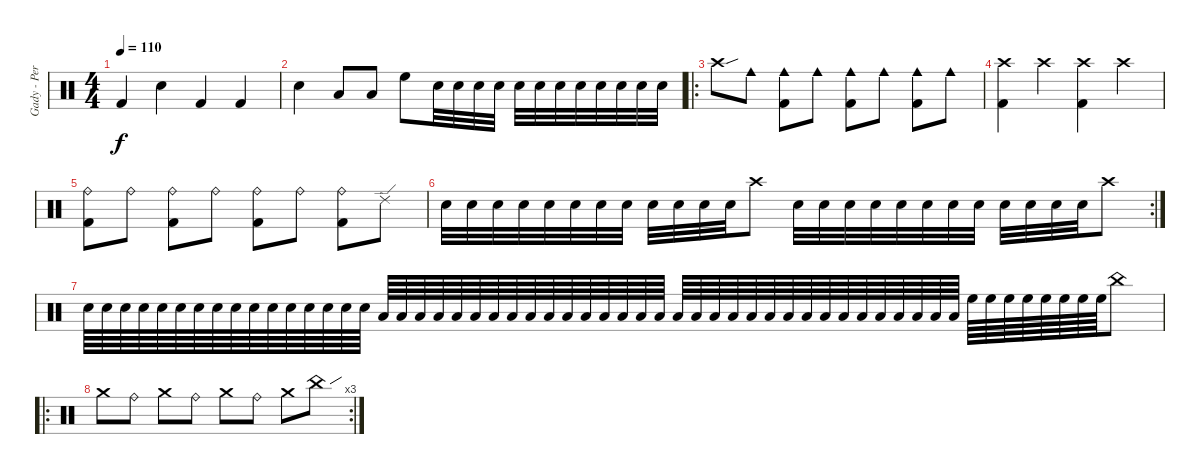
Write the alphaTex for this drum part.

\track ("Gady - Perkusja" "Gady - Per") {instrument percussion}
\staff {score}
\articulation defaults
\ts (4 4)
\tempo 110
\clef neutral
\ks c "Kick (hit) 2".4{dy f} "Electric Snare (hit)".4 "Kick (hit) 2".4 "Kick (hit) 2".4
|
"Electric Snare (hit)".4 "Low Tom (hit)".8 "Low Floor Tom (hit)".8 "High Floor Tom (hit)".8 "Electric Snare (hit)".32 "Electric Snare (hit)".32 "Electric Snare (hit)".32 "Electric Snare (hit)".32 "Electric Snare (hit)".32 "Electric Snare (hit)".32 "Electric Snare (hit)".32 "Electric Snare (hit)".32 "Electric Snare (hit)".32 "Electric Snare (hit)".32 "Electric Snare (hit)".32 "Electric Snare (hit)".32 |
\ro "Crash high (hit)"{sou}.8 "Cowbell medium (hit)".8
("Cowbell medium (hit)" "Kick (hit) 2").8 "Cowbell medium (hit)".8 ("Cowbell medium (hit)" "Kick (hit) 2").8 "Cowbell medium (hit)".8 ("Cowbell medium (hit)" "Kick (hit) 2").8 "Cowbell medium (hit)".8 |
("Crash high (hit)" "Kick (hit) 2").4 "Crash high (hit)".4 ("Crash high (hit)" "Kick (hit) 2").4 "Crash high (hit)".4 |
("Ride (bell)" "Kick (hit) 2").8 "Ride (bell)".8 ("Ride (bell)" "Kick (hit) 2").8 "Ride (bell)".8 ("Ride (bell)" "Kick (hit) 2").8 "Ride (bell)".8 ("Ride (bell)" "Kick (hit) 2").8 "Ride (edge) 2".8 |
\rc 2 "Electric Snare (hit)".32 "Electric Snare (hit)".32 "Electric Snare (hit)".32 "Electric Snare (hit)".32 "Electric Snare (hit)".32 "Electric Snare (hit)".32 "Electric Snare (hit)".32 "Electric Snare (hit)".32 "Electric Snare (hit)".32 "Electric Snare (hit)".32 "Electric Snare (hit)".32 "Electric Snare (hit)".32 "Crash high (hit)".8 "Electric Snare (hit)".32 "Electric Snare (hit)".32 "Electric Snare (hit)".32 "Electric Snare (hit)".32 "Electric Snare (hit)".32 "Electric Snare (hit)".32 "Electric Snare (hit)".32 "Electric Snare (hit)".32 "Electric Snare (hit)".32 "Electric Snare (hit)".32 "Electric Snare (hit)".32 "Electric Snare (hit)".32 "Crash high (hit)".8
|
"Electric Snare (hit)".64 "Electric Snare (hit)".64 "Electric Snare (hit)".64 "Electric Snare (hit)".64 "Electric Snare (hit)".64 "Electric Snare (hit)".64 "Electric Snare (hit)".64 "Electric Snare (hit)".64 "Electric Snare (hit)".64 "Electric Snare (hit)".64 "Electric Snare (hit)".64 "Electric Snare (hit)".64 "Electric Snare (hit)".64 "Electric Snare (hit)".64 "Electric Snare (hit)".64 "Electric Snare (hit)".64 "Low Tom (hit)".64 "Low Tom (hit)".64 "Low Tom (hit)".64 "Low Tom (hit)".64 "Low Tom (hit)".64 "Low Tom (hit)".64 "Low Tom (hit)".64 "Low Tom (hit)".64 "Low Tom (hit)".64 "Low Tom (hit)".64 "Low Tom (hit)".64 "Low Tom (hit)".64 "Low Tom (hit)".64 "Low Tom (hit)".64 "Low Tom (hit)".64 "Low Tom (hit)".64 "Low Floor Tom (hit)".64 "Low Floor Tom (hit)".64 "Low Floor Tom (hit)".64 "Low Floor Tom (hit)".64 "Low Floor Tom (hit)".64 "Low Floor Tom (hit)".64 "Low Floor Tom (hit)".64 "Low Floor Tom (hit)".64 "Low Floor Tom (hit)".64 "Low Floor Tom (hit)".64 "Low Floor Tom (hit)".64 "Low Floor Tom (hit)".64 "Low Floor Tom (hit)".64 "Low Floor Tom (hit)".64 "Low Floor Tom (hit)".64 "Low Floor Tom (hit)".64 "High Floor Tom (hit)".64 "High Floor Tom (hit)".64 "High Floor Tom (hit)".64 "High Floor Tom (hit)".64 "High Floor Tom (hit)".64 "High Floor Tom (hit)".64 "High Floor Tom (hit)".64 "High Floor Tom (hit)".64 "China (hit)".8 |
\ro
\rc 3 "Crash medium (hit)".8 "Ride (bell)".8 "Crash medium (hit)".8 "Ride (bell)".8 "Crash medium (hit)".8 "Ride (bell)".8 "Crash medium (hit)".8 "China (hit)"{sou}.8
